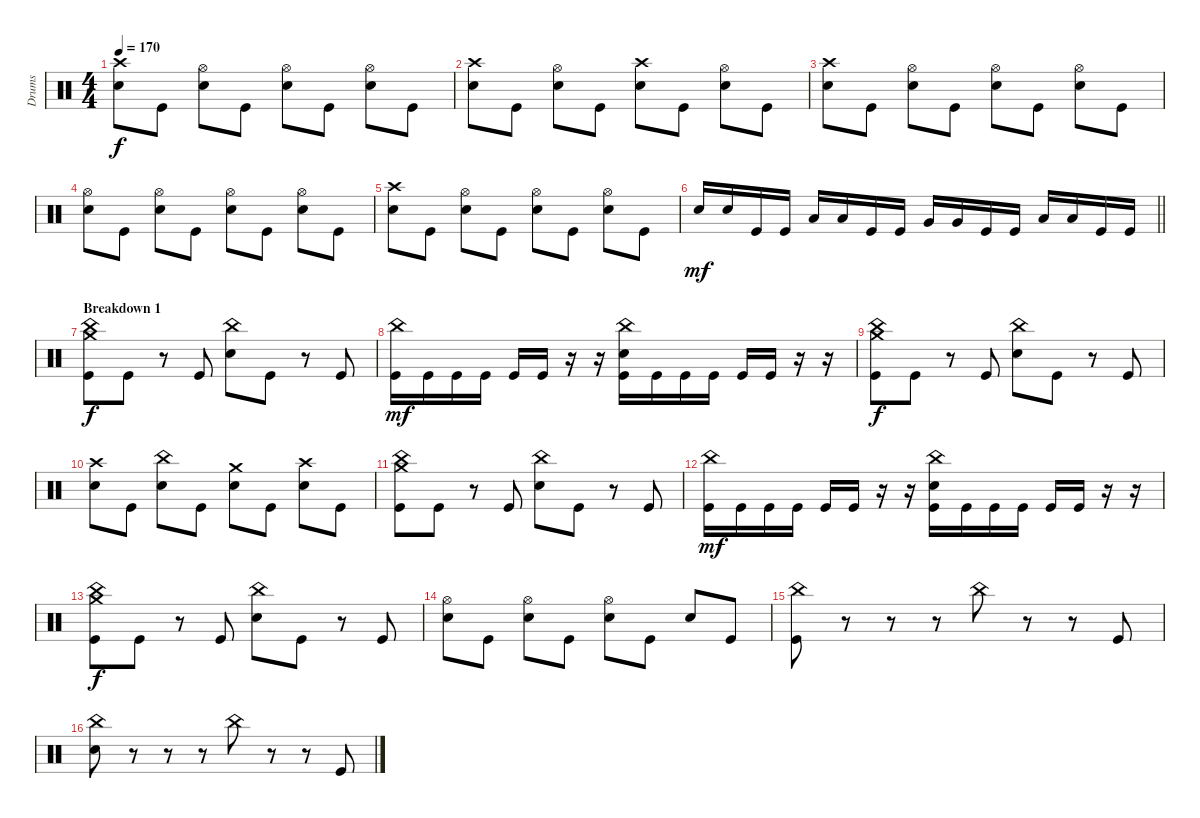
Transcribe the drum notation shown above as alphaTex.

\track ("Drums" "Drums") {instrument percussion}
\staff {score}
\articulation defaults
\ts (4 4)
\tempo 170
\clef neutral
\ks c
("Snare (hit) 2" "Crash high (hit)").8{dy f} "Kick (hit)".8 ("Snare (hit) 2" "Hi-Hat (open)").8 "Kick (hit)".8 ("Snare (hit) 2" "Hi-Hat (open)").8 "Kick (hit)".8 ("Snare (hit) 2" "Hi-Hat (open)").8 "Kick (hit)".8 |
("Snare (hit) 2" "Crash high (hit)").8 "Kick (hit)".8 ("Snare (hit) 2" "Hi-Hat (open)").8 "Kick (hit)".8 ("Snare (hit) 2" "Crash high (hit)").8 "Kick (hit)".8 ("Snare (hit) 2" "Hi-Hat (open)").8 "Kick (hit)".8 |
("Snare (hit) 2" "Crash high (hit)").8 "Kick (hit)".8 ("Snare (hit) 2" "Hi-Hat (open)").8 "Kick (hit)".8 ("Snare (hit) 2" "Hi-Hat (open)").8 "Kick (hit)".8 ("Snare (hit) 2" "Hi-Hat (open)").8 "Kick (hit)".8 |
("Snare (hit) 2" "Hi-Hat (open)").8 "Kick (hit)".8 ("Snare (hit) 2" "Hi-Hat (open)").8 "Kick (hit)".8 ("Snare (hit) 2" "Hi-Hat (open)").8 "Kick (hit)".8 ("Snare (hit) 2" "Hi-Hat (open)").8 "Kick (hit)".8 |
("Snare (hit) 2" "Crash high (hit)").8 "Kick (hit)".8 ("Snare (hit) 2" "Hi-Hat (open)").8 "Kick (hit)".8 ("Snare (hit) 2" "Hi-Hat (open)").8 "Kick (hit)".8 ("Snare (hit) 2" "Hi-Hat (open)").8 "Kick (hit)".8 |
\barLineRight lightlight "Snare (hit) 2".16{dy mf} "Snare (hit) 2".16 "Kick (hit)".16 "Kick (hit)".16 "Low Tom (hit)".16 "Low Tom (hit)".16 "Kick (hit)".16 "Kick (hit)".16 "Very Low Tom (hit)".16 "Very Low Tom (hit)".16 "Kick (hit)".16 "Kick (hit)".16 "Low Floor Tom (hit)".16 "Low Floor Tom (hit)".16 "Kick (hit)".16 "Kick (hit)".16
|
\section ("" "Breakdown 1")
("Kick (hit)" "China (hit)" "Crash medium (hit)").8{dy f} "Kick (hit)".8 r.8 "Kick (hit)".8 ("Snare (hit) 2" "China (hit)").8 "Kick (hit)".8 r.8 "Kick (hit)".8 |
("Kick (hit)" "China (hit)").16{dy mf} "Kick (hit)".16 "Kick (hit)".16 "Kick (hit)".16 "Kick (hit)".16 "Kick (hit)".16 r.16 r.16 ("Kick (hit)" "Snare (hit) 2" "China (hit)").16 "Kick (hit)".16 "Kick (hit)".16 "Kick (hit)".16 "Kick (hit)".16 "Kick (hit)".16 r.16 r.16 |
("Kick (hit)" "China (hit)" "Crash medium (hit)").8{dy f} "Kick (hit)".8 r.8 "Kick (hit)".8 ("Snare (hit) 2" "China (hit)").8 "Kick (hit)".8 r.8 "Kick (hit)".8 |
("Snare (hit) 2" "Crash high (hit)").8 "Kick (hit)".8 ("Snare (hit) 2" "China (hit)").8 "Kick (hit)".8 ("Snare (hit) 2" "Crash medium (hit)").8 "Kick (hit)".8 ("Snare (hit) 2" "Crash high (hit)").8 "Kick (hit)".8 |
("Kick (hit)" "China (hit)" "Crash medium (hit)").8 "Kick (hit)".8 r.8 "Kick (hit)".8 ("Snare (hit) 2" "China (hit)").8 "Kick (hit)".8 r.8 "Kick (hit)".8 |
("Kick (hit)" "China (hit)").16{dy mf} "Kick (hit)".16 "Kick (hit)".16 "Kick (hit)".16 "Kick (hit)".16 "Kick (hit)".16 r.16 r.16 ("Kick (hit)" "Snare (hit) 2" "China (hit)").16 "Kick (hit)".16 "Kick (hit)".16 "Kick (hit)".16 "Kick (hit)".16 "Kick (hit)".16 r.16 r.16 |
("Kick (hit)" "China (hit)" "Crash medium (hit)").8{dy f} "Kick (hit)".8 r.8 "Kick (hit)".8 ("Snare (hit) 2" "China (hit)").8 "Kick (hit)".8 r.8 "Kick (hit)".8 |
("Snare (hit) 2" "Hi-Hat (open)").8 "Kick (hit)".8 ("Snare (hit) 2" "Hi-Hat (open)").8 "Kick (hit)".8 ("Snare (hit) 2" "Hi-Hat (open)").8 "Kick (hit)".8 "Snare (hit) 2".8 "Kick (hit)".8 |
("Kick (hit)" "China (hit)").8 r.8 r.8 r.8 "China (hit)".8 r.8 r.8 "Kick (hit)".8 |
("Snare (hit) 2" "China (hit)").8 r.8 r.8 r.8 "China (hit)".8 r.8 r.8 "Kick (hit)".8
